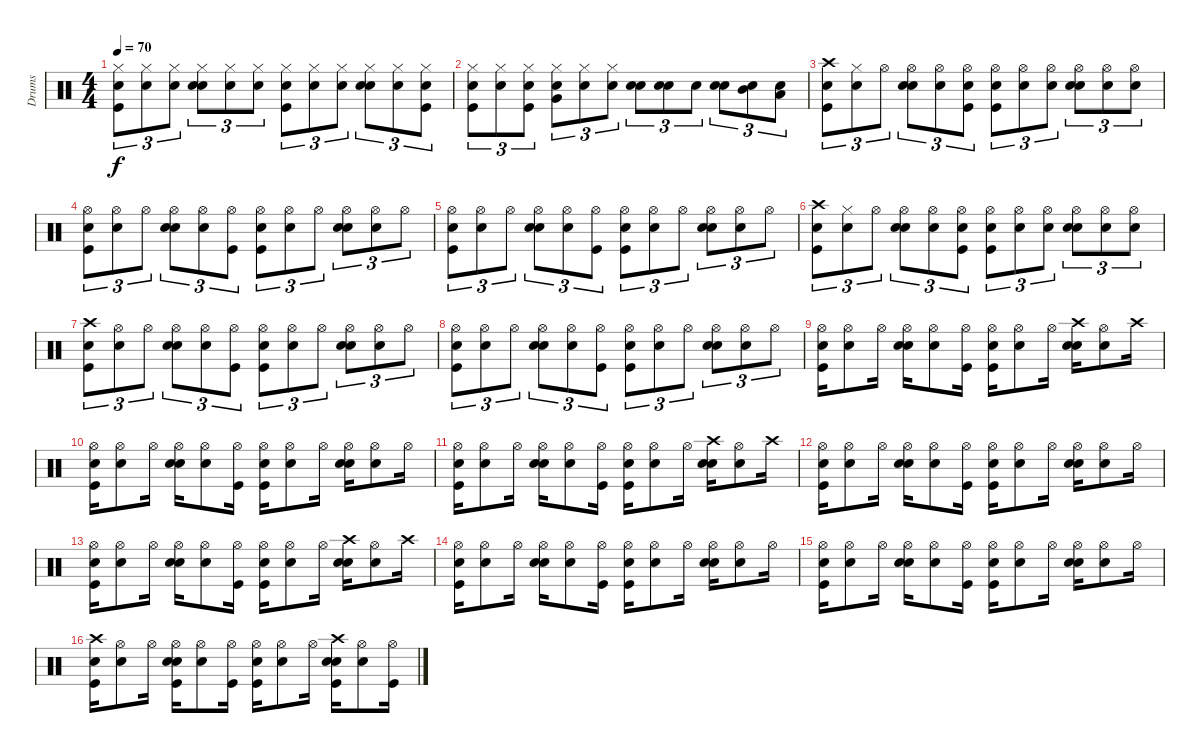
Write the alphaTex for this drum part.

\track ("Drums" "Drums") {instrument percussion}
\staff {score}
\articulation defaults
\ts (4 4)
\tempo 70
\clef neutral
\ks c
("Snare (hit)" "Hi-Hat (closed)" "Kick (hit)").8{tu (3 2) dy f} ("Snare (hit)" "Hi-Hat (closed)").8{tu (3 2)} ("Snare (hit)" "Hi-Hat (closed)").8{tu (3 2)} ("Snare (hit)" "Snare (hit) 2" "Hi-Hat (closed)").8{tu (3 2)} ("Snare (hit)" "Hi-Hat (closed)").8{tu (3 2)} ("Snare (hit)" "Hi-Hat (closed)").8{tu (3 2)} ("Snare (hit)" "Kick (hit)" "Hi-Hat (closed)").8{tu (3 2)} ("Snare (hit)" "Hi-Hat (closed)").8{tu (3 2)} ("Snare (hit)" "Hi-Hat (closed)").8{tu (3 2)} ("Snare (hit)" "Snare (hit) 2" "Hi-Hat (closed)").8{tu (3 2)} ("Snare (hit)" "Hi-Hat (closed)").8{tu (3 2)} ("Snare (hit)" "Kick (hit)" "Hi-Hat (closed)").8{tu (3 2)} |
("Snare (hit)" "Kick (hit)" "Hi-Hat (closed)").8{tu (3 2)} ("Snare (hit)" "Hi-Hat (closed)").8{tu (3 2)} ("Snare (hit)" "Kick (hit)" "Hi-Hat (closed)").8{tu (3 2)} ("Snare (hit)" "Very Low Tom (hit)" "Hi-Hat (closed)").8{tu (3 2)} ("Snare (hit)" "Hi-Hat (closed)").8{tu (3 2)} ("Snare (hit)" "Hi-Hat (closed)").8{tu (3 2)} ("Snare (hit)" "Snare (hit) 2").8{tu (3 2)} ("Snare (hit)" "Snare (hit) 2").8{tu (3 2)} "Snare (hit) 2".8{tu (3 2)} ("Snare (hit)" "Snare (hit) 2").8{tu (3 2)} ("Snare (hit)" "Mid Tom (hit)").8{tu (3 2)} ("Snare (hit)" "Low Tom (hit)").8{tu (3 2)} |
("Snare (hit)" "Kick (hit)" "Crash high (hit)").8{tu (3 2)} ("Snare (hit)" "Hi-Hat (closed)").8{tu (3 2)} "Hi-Hat (open)".8{tu (3 2)} ("Snare (hit)" "Hi-Hat (open)" "Snare (hit) 2").8{tu (3 2)} ("Snare (hit)" "Hi-Hat (open)").8{tu (3 2)} ("Snare (hit)" "Kick (hit)" "Hi-Hat (open)").8{tu (3 2)} ("Snare (hit)" "Kick (hit)" "Hi-Hat (open)").8{tu (3 2)} ("Snare (hit)" "Hi-Hat (open)").8{tu (3 2)} ("Snare (hit)" "Hi-Hat (open)").8{tu (3 2)} ("Snare (hit)" "Hi-Hat (open)" "Snare (hit) 2").8{tu (3 2)} ("Snare (hit)" "Hi-Hat (open)").8{tu (3 2)} ("Snare (hit)" "Hi-Hat (open)").8{tu (3 2)} |
("Snare (hit)" "Hi-Hat (open)" "Kick (hit)").8{tu (3 2)} ("Snare (hit)" "Hi-Hat (open)").8{tu (3 2)} "Hi-Hat (open)".8{tu (3 2)} ("Snare (hit)" "Snare (hit) 2" "Hi-Hat (open)").8{tu (3 2)} ("Snare (hit)" "Hi-Hat (open)").8{tu (3 2)} ("Kick (hit)" "Hi-Hat (open)").8{tu (3 2)} ("Snare (hit)" "Kick (hit)" "Hi-Hat (open)").8{tu (3 2)} ("Snare (hit)" "Hi-Hat (open)").8{tu (3 2)} "Hi-Hat (open)".8{tu (3 2)} ("Snare (hit)" "Snare (hit) 2" "Hi-Hat (open)").8{tu (3 2)} ("Snare (hit)" "Hi-Hat (open)").8{tu (3 2)} "Hi-Hat (open)".8{tu (3 2)} |
("Snare (hit)" "Hi-Hat (open)" "Kick (hit)").8{tu (3 2)} ("Snare (hit)" "Hi-Hat (open)").8{tu (3 2)} "Hi-Hat (open)".8{tu (3 2)} ("Snare (hit)" "Snare (hit) 2" "Hi-Hat (open)").8{tu (3 2)} ("Snare (hit)" "Hi-Hat (open)").8{tu (3 2)} ("Kick (hit)" "Hi-Hat (open)").8{tu (3 2)} ("Snare (hit)" "Kick (hit)" "Hi-Hat (open)").8{tu (3 2)} ("Snare (hit)" "Hi-Hat (open)").8{tu (3 2)} "Hi-Hat (open)".8{tu (3 2)} ("Snare (hit)" "Snare (hit) 2" "Hi-Hat (open)").8{tu (3 2)} ("Snare (hit)" "Hi-Hat (open)").8{tu (3 2)} "Hi-Hat (open)".8{tu (3 2)} |
("Snare (hit)" "Kick (hit)" "Crash high (hit)").8{tu (3 2)} ("Snare (hit)" "Hi-Hat (closed)").8{tu (3 2)} "Hi-Hat (open)".8{tu (3 2)} ("Snare (hit)" "Hi-Hat (open)" "Snare (hit) 2").8{tu (3 2)} ("Snare (hit)" "Hi-Hat (open)").8{tu (3 2)} ("Snare (hit)" "Kick (hit)" "Hi-Hat (open)").8{tu (3 2)} ("Snare (hit)" "Kick (hit)" "Hi-Hat (open)").8{tu (3 2)} ("Snare (hit)" "Hi-Hat (open)").8{tu (3 2)} ("Snare (hit)" "Hi-Hat (open)").8{tu (3 2)} ("Snare (hit)" "Hi-Hat (open)" "Snare (hit) 2").8{tu (3 2)} ("Snare (hit)" "Hi-Hat (open)").8{tu (3 2)} ("Snare (hit)" "Hi-Hat (open)").8{tu (3 2)} |
("Snare (hit)" "Crash high (hit)" "Kick (hit)").8{tu (3 2)} ("Snare (hit)" "Hi-Hat (open)").8{tu (3 2)} "Hi-Hat (open)".8{tu (3 2)} ("Snare (hit)" "Snare (hit) 2" "Hi-Hat (open)").8{tu (3 2)} ("Snare (hit)" "Hi-Hat (open)").8{tu (3 2)} ("Kick (hit)" "Hi-Hat (open)").8{tu (3 2)} ("Snare (hit)" "Kick (hit)" "Hi-Hat (open)").8{tu (3 2)} ("Snare (hit)" "Hi-Hat (open)").8{tu (3 2)} "Hi-Hat (open)".8{tu (3 2)} ("Snare (hit)" "Snare (hit) 2" "Hi-Hat (open)").8{tu (3 2)} ("Snare (hit)" "Hi-Hat (open)").8{tu (3 2)} "Hi-Hat (open)".8{tu (3 2)} |
("Snare (hit)" "Hi-Hat (open)" "Kick (hit)").8{tu (3 2)} ("Snare (hit)" "Hi-Hat (open)").8{tu (3 2)} "Hi-Hat (open)".8{tu (3 2)} ("Snare (hit)" "Snare (hit) 2" "Hi-Hat (open)").8{tu (3 2)} ("Snare (hit)" "Hi-Hat (open)").8{tu (3 2)} ("Kick (hit)" "Hi-Hat (open)").8{tu (3 2)} ("Snare (hit)" "Kick (hit)" "Hi-Hat (open)").8{tu (3 2)} ("Snare (hit)" "Hi-Hat (open)").8{tu (3 2)} "Hi-Hat (open)".8{tu (3 2)} ("Snare (hit)" "Snare (hit) 2" "Hi-Hat (open)").8{tu (3 2)} ("Snare (hit)" "Hi-Hat (open)").8{tu (3 2)} "Hi-Hat (open)".8{tu (3 2)} |
("Snare (hit)" "Hi-Hat (open)" "Kick (hit)").16 ("Snare (hit)" "Hi-Hat (open)").8 "Hi-Hat (open)".16 ("Snare (hit)" "Snare (hit) 2" "Hi-Hat (open)").16 ("Snare (hit)" "Hi-Hat (open)").8 ("Kick (hit)" "Hi-Hat (open)").16 ("Snare (hit)" "Kick (hit)" "Hi-Hat (open)").16 ("Snare (hit)" "Hi-Hat (open)").8 "Hi-Hat (open)".16 ("Snare (hit)" "Snare (hit) 2" "Crash high (hit)").16 ("Snare (hit)" "Hi-Hat (open)").8 "Crash high (hit)".16 |
("Snare (hit)" "Hi-Hat (open)" "Kick (hit)").16 ("Snare (hit)" "Hi-Hat (open)").8 "Hi-Hat (open)".16 ("Snare (hit)" "Snare (hit) 2" "Hi-Hat (open)").16 ("Snare (hit)" "Hi-Hat (open)").8 ("Kick (hit)" "Hi-Hat (open)").16 ("Snare (hit)" "Kick (hit)" "Hi-Hat (open)").16 ("Snare (hit)" "Hi-Hat (open)").8 "Hi-Hat (open)".16 ("Snare (hit)" "Snare (hit) 2" "Hi-Hat (open)").16 ("Snare (hit)" "Hi-Hat (open)").8 "Hi-Hat (open)".16 |
("Snare (hit)" "Hi-Hat (open)" "Kick (hit)").16 ("Snare (hit)" "Hi-Hat (open)").8 "Hi-Hat (open)".16 ("Snare (hit)" "Snare (hit) 2" "Hi-Hat (open)").16 ("Snare (hit)" "Hi-Hat (open)").8 ("Kick (hit)" "Hi-Hat (open)").16 ("Snare (hit)" "Kick (hit)" "Hi-Hat (open)").16 ("Snare (hit)" "Hi-Hat (open)").8 "Hi-Hat (open)".16 ("Snare (hit)" "Snare (hit) 2" "Crash high (hit)").16 ("Snare (hit)" "Hi-Hat (open)").8 "Crash high (hit)".16 |
("Snare (hit)" "Hi-Hat (open)" "Kick (hit)").16 ("Snare (hit)" "Hi-Hat (open)").8 "Hi-Hat (open)".16 ("Snare (hit)" "Snare (hit) 2" "Hi-Hat (open)").16 ("Snare (hit)" "Hi-Hat (open)").8 ("Kick (hit)" "Hi-Hat (open)").16 ("Snare (hit)" "Kick (hit)" "Hi-Hat (open)").16 ("Snare (hit)" "Hi-Hat (open)").8 "Hi-Hat (open)".16 ("Snare (hit)" "Snare (hit) 2" "Hi-Hat (open)").16 ("Snare (hit)" "Hi-Hat (open)").8 "Hi-Hat (open)".16 |
("Snare (hit)" "Hi-Hat (open)" "Kick (hit)").16 ("Snare (hit)" "Hi-Hat (open)").8 "Hi-Hat (open)".16 ("Snare (hit)" "Snare (hit) 2" "Hi-Hat (open)").16 ("Snare (hit)" "Hi-Hat (open)").8 ("Kick (hit)" "Hi-Hat (open)").16 ("Snare (hit)" "Kick (hit)" "Hi-Hat (open)").16 ("Snare (hit)" "Hi-Hat (open)").8 "Hi-Hat (open)".16 ("Snare (hit)" "Snare (hit) 2" "Crash high (hit)").16 ("Snare (hit)" "Hi-Hat (open)").8 "Crash high (hit)".16 |
("Snare (hit)" "Hi-Hat (open)" "Kick (hit)").16 ("Snare (hit)" "Hi-Hat (open)").8 "Hi-Hat (open)".16 ("Snare (hit)" "Snare (hit) 2" "Hi-Hat (open)").16 ("Snare (hit)" "Hi-Hat (open)").8 ("Kick (hit)" "Hi-Hat (open)").16 ("Snare (hit)" "Kick (hit)" "Hi-Hat (open)").16 ("Snare (hit)" "Hi-Hat (open)").8 "Hi-Hat (open)".16 ("Snare (hit)" "Snare (hit) 2" "Hi-Hat (open)").16 ("Snare (hit)" "Hi-Hat (open)").8 "Hi-Hat (open)".16 |
("Snare (hit)" "Hi-Hat (open)" "Kick (hit)").16 ("Snare (hit)" "Hi-Hat (open)").8 "Hi-Hat (open)".16 ("Snare (hit)" "Snare (hit) 2" "Hi-Hat (open)").16 ("Snare (hit)" "Hi-Hat (open)").8 ("Kick (hit)" "Hi-Hat (open)").16 ("Snare (hit)" "Kick (hit)" "Hi-Hat (open)").16 ("Snare (hit)" "Hi-Hat (open)").8 "Hi-Hat (open)".16 ("Snare (hit)" "Snare (hit) 2" "Hi-Hat (open)").16 ("Snare (hit)" "Hi-Hat (open)").8 "Hi-Hat (open)".16 |
("Snare (hit)" "Crash high (hit)" "Kick (hit)").16 ("Snare (hit)" "Hi-Hat (open)").8 "Hi-Hat (open)".16 ("Snare (hit)" "Hi-Hat (open)" "Kick (hit)" "Snare (hit) 2").16 ("Snare (hit)" "Hi-Hat (open)").8 ("Kick (hit)" "Hi-Hat (open)").16 ("Snare (hit)" "Kick (hit)" "Hi-Hat (open)").16 ("Snare (hit)" "Hi-Hat (open)").8 "Hi-Hat (open)".16 ("Snare (hit)" "Crash high (hit)" "Kick (hit)" "Snare (hit) 2").16 ("Snare (hit)" "Hi-Hat (open)").8 ("Kick (hit)" "Hi-Hat (open)").16
